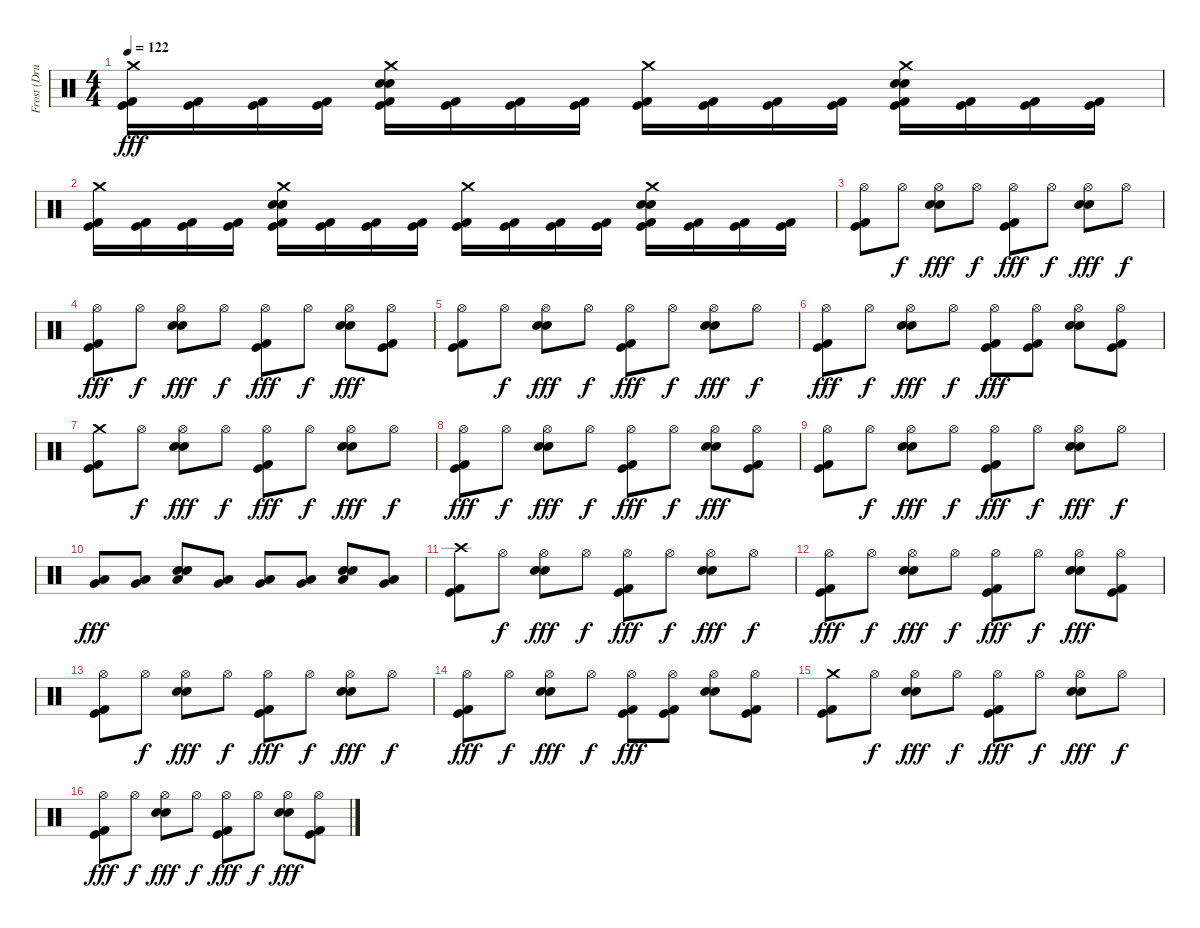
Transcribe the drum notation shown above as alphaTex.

\track ("Frost (Drums)" "Frost (Dru") {instrument percussion}
\staff {score}
\articulation defaults
\ts (4 4)
\tempo 122
\clef neutral
\ks c
("Crash medium (hit)" "Kick (hit)" "Kick (hit) 2").16{dy fff} ("Kick (hit)" "Kick (hit) 2").16 ("Kick (hit)" "Kick (hit) 2").16 ("Kick (hit)" "Kick (hit) 2").16 ("Crash medium (hit)" "Snare (hit) 2" "Electric Snare (hit)" "Kick (hit)" "Kick (hit) 2").16 ("Kick (hit)" "Kick (hit) 2").16 ("Kick (hit)" "Kick (hit) 2").16 ("Kick (hit)" "Kick (hit) 2").16 ("Crash medium (hit)" "Kick (hit)" "Kick (hit) 2").16 ("Kick (hit)" "Kick (hit) 2").16 ("Kick (hit)" "Kick (hit) 2").16 ("Kick (hit)" "Kick (hit) 2").16 ("Crash medium (hit)" "Snare (hit) 2" "Electric Snare (hit)" "Kick (hit)" "Kick (hit) 2").16 ("Kick (hit)" "Kick (hit) 2").16 ("Kick (hit)" "Kick (hit) 2").16 ("Kick (hit)" "Kick (hit) 2").16 |
("Crash medium (hit)" "Kick (hit)" "Kick (hit) 2").16 ("Kick (hit)" "Kick (hit) 2").16 ("Kick (hit)" "Kick (hit) 2").16 ("Kick (hit)" "Kick (hit) 2").16 ("Crash medium (hit)" "Snare (hit) 2" "Electric Snare (hit)" "Kick (hit)" "Kick (hit) 2").16 ("Kick (hit)" "Kick (hit) 2").16 ("Kick (hit)" "Kick (hit) 2").16 ("Kick (hit)" "Kick (hit) 2").16 ("Crash medium (hit)" "Kick (hit)" "Kick (hit) 2").16 ("Kick (hit)" "Kick (hit) 2").16 ("Kick (hit)" "Kick (hit) 2").16 ("Kick (hit)" "Kick (hit) 2").16 ("Crash medium (hit)" "Snare (hit) 2" "Electric Snare (hit)" "Kick (hit)" "Kick (hit) 2").16 ("Kick (hit)" "Kick (hit) 2").16 ("Kick (hit)" "Kick (hit) 2").16 ("Kick (hit)" "Kick (hit) 2").16 |
("Hi-Hat (open)" "Kick (hit)" "Kick (hit) 2").8 "Hi-Hat (open)".8{dy f} ("Hi-Hat (open)" "Snare (hit) 2" "Electric Snare (hit)").8{dy fff} "Hi-Hat (open)".8{dy f} ("Hi-Hat (open)" "Kick (hit)" "Kick (hit) 2").8{dy fff} "Hi-Hat (open)".8{dy f} ("Hi-Hat (open)" "Snare (hit) 2" "Electric Snare (hit)").8{dy fff} "Hi-Hat (open)".8{dy f} |
("Hi-Hat (open)" "Kick (hit)" "Kick (hit) 2").8{dy fff} "Hi-Hat (open)".8{dy f} ("Hi-Hat (open)" "Snare (hit) 2" "Electric Snare (hit)").8{dy fff} "Hi-Hat (open)".8{dy f} ("Hi-Hat (open)" "Kick (hit)" "Kick (hit) 2").8{dy fff} "Hi-Hat (open)".8{dy f} ("Hi-Hat (open)" "Snare (hit) 2" "Electric Snare (hit)").8{dy fff} ("Hi-Hat (open)" "Kick (hit)" "Kick (hit) 2").8 |
("Hi-Hat (open)" "Kick (hit)" "Kick (hit) 2").8 "Hi-Hat (open)".8{dy f} ("Hi-Hat (open)" "Snare (hit) 2" "Electric Snare (hit)").8{dy fff} "Hi-Hat (open)".8{dy f} ("Hi-Hat (open)" "Kick (hit)" "Kick (hit) 2").8{dy fff} "Hi-Hat (open)".8{dy f} ("Hi-Hat (open)" "Snare (hit) 2" "Electric Snare (hit)").8{dy fff} "Hi-Hat (open)".8{dy f} |
("Hi-Hat (open)" "Kick (hit)" "Kick (hit) 2").8{dy fff} "Hi-Hat (open)".8{dy f} ("Hi-Hat (open)" "Snare (hit) 2" "Electric Snare (hit)").8{dy fff} "Hi-Hat (open)".8{dy f} ("Hi-Hat (open)" "Kick (hit)" "Kick (hit) 2").8{dy fff} ("Hi-Hat (open)" "Kick (hit)" "Kick (hit) 2").8 ("Hi-Hat (open)" "Snare (hit) 2" "Electric Snare (hit)").8 ("Hi-Hat (open)" "Kick (hit)" "Kick (hit) 2").8 |
("Crash medium (hit)" "Kick (hit)" "Kick (hit) 2").8 "Hi-Hat (open)".8{dy f} ("Hi-Hat (open)" "Snare (hit) 2" "Electric Snare (hit)").8{dy fff} "Hi-Hat (open)".8{dy f} ("Hi-Hat (open)" "Kick (hit)" "Kick (hit) 2").8{dy fff} "Hi-Hat (open)".8{dy f} ("Hi-Hat (open)" "Snare (hit) 2" "Electric Snare (hit)").8{dy fff} "Hi-Hat (open)".8{dy f} |
("Hi-Hat (open)" "Kick (hit)" "Kick (hit) 2").8{dy fff} "Hi-Hat (open)".8{dy f} ("Hi-Hat (open)" "Snare (hit) 2" "Electric Snare (hit)").8{dy fff} "Hi-Hat (open)".8{dy f} ("Hi-Hat (open)" "Kick (hit)" "Kick (hit) 2").8{dy fff} "Hi-Hat (open)".8{dy f} ("Hi-Hat (open)" "Snare (hit) 2" "Electric Snare (hit)").8{dy fff} ("Hi-Hat (open)" "Kick (hit)" "Kick (hit) 2").8 |
("Hi-Hat (open)" "Kick (hit)" "Kick (hit) 2").8 "Hi-Hat (open)".8{dy f} ("Hi-Hat (open)" "Snare (hit) 2" "Electric Snare (hit)").8{dy fff} "Hi-Hat (open)".8{dy f} ("Hi-Hat (open)" "Kick (hit)" "Kick (hit) 2").8{dy fff} "Hi-Hat (open)".8{dy f} ("Hi-Hat (open)" "Snare (hit) 2" "Electric Snare (hit)").8{dy fff} "Hi-Hat (open)".8{dy f} |
("Very Low Tom (hit)" "Low Floor Tom (hit)").8{dy fff} ("Very Low Tom (hit)" "Low Floor Tom (hit)").8 ("Low Floor Tom (hit)" "Electric Snare (hit)" "Snare (hit) 2").8 ("Very Low Tom (hit)" "Low Floor Tom (hit)").8 ("Very Low Tom (hit)" "Low Floor Tom (hit)").8 ("Very Low Tom (hit)" "Low Floor Tom (hit)").8 ("Low Floor Tom (hit)" "Electric Snare (hit)" "Snare (hit) 2").8 ("Very Low Tom (hit)" "Low Floor Tom (hit)").8 |
("Crash high (hit)" "Kick (hit)" "Kick (hit) 2").8 "Hi-Hat (open)".8{dy f} ("Hi-Hat (open)" "Snare (hit) 2" "Electric Snare (hit)").8{dy fff} "Hi-Hat (open)".8{dy f} ("Hi-Hat (open)" "Kick (hit)" "Kick (hit) 2").8{dy fff} "Hi-Hat (open)".8{dy f} ("Hi-Hat (open)" "Snare (hit) 2" "Electric Snare (hit)").8{dy fff} "Hi-Hat (open)".8{dy f} |
("Hi-Hat (open)" "Kick (hit)" "Kick (hit) 2").8{dy fff} "Hi-Hat (open)".8{dy f} ("Hi-Hat (open)" "Snare (hit) 2" "Electric Snare (hit)").8{dy fff} "Hi-Hat (open)".8{dy f} ("Hi-Hat (open)" "Kick (hit)" "Kick (hit) 2").8{dy fff} "Hi-Hat (open)".8{dy f} ("Hi-Hat (open)" "Snare (hit) 2" "Electric Snare (hit)").8{dy fff} ("Hi-Hat (open)" "Kick (hit)" "Kick (hit) 2").8 |
("Hi-Hat (open)" "Kick (hit)" "Kick (hit) 2").8 "Hi-Hat (open)".8{dy f} ("Hi-Hat (open)" "Snare (hit) 2" "Electric Snare (hit)").8{dy fff} "Hi-Hat (open)".8{dy f} ("Hi-Hat (open)" "Kick (hit)" "Kick (hit) 2").8{dy fff} "Hi-Hat (open)".8{dy f} ("Hi-Hat (open)" "Snare (hit) 2" "Electric Snare (hit)").8{dy fff} "Hi-Hat (open)".8{dy f} |
("Hi-Hat (open)" "Kick (hit)" "Kick (hit) 2").8{dy fff} "Hi-Hat (open)".8{dy f} ("Hi-Hat (open)" "Snare (hit) 2" "Electric Snare (hit)").8{dy fff} "Hi-Hat (open)".8{dy f} ("Hi-Hat (open)" "Kick (hit)" "Kick (hit) 2").8{dy fff} ("Hi-Hat (open)" "Kick (hit)" "Kick (hit) 2").8 ("Hi-Hat (open)" "Snare (hit) 2" "Electric Snare (hit)").8 ("Hi-Hat (open)" "Kick (hit)" "Kick (hit) 2").8 |
("Crash medium (hit)" "Kick (hit)" "Kick (hit) 2").8 "Hi-Hat (open)".8{dy f} ("Hi-Hat (open)" "Snare (hit) 2" "Electric Snare (hit)").8{dy fff} "Hi-Hat (open)".8{dy f} ("Hi-Hat (open)" "Kick (hit)" "Kick (hit) 2").8{dy fff} "Hi-Hat (open)".8{dy f} ("Hi-Hat (open)" "Snare (hit) 2" "Electric Snare (hit)").8{dy fff} "Hi-Hat (open)".8{dy f} |
("Hi-Hat (open)" "Kick (hit)" "Kick (hit) 2").8{dy fff} "Hi-Hat (open)".8{dy f} ("Hi-Hat (open)" "Snare (hit) 2" "Electric Snare (hit)").8{dy fff} "Hi-Hat (open)".8{dy f} ("Hi-Hat (open)" "Kick (hit)" "Kick (hit) 2").8{dy fff} "Hi-Hat (open)".8{dy f} ("Hi-Hat (open)" "Snare (hit) 2" "Electric Snare (hit)").8{dy fff} ("Hi-Hat (open)" "Kick (hit)" "Kick (hit) 2").8
